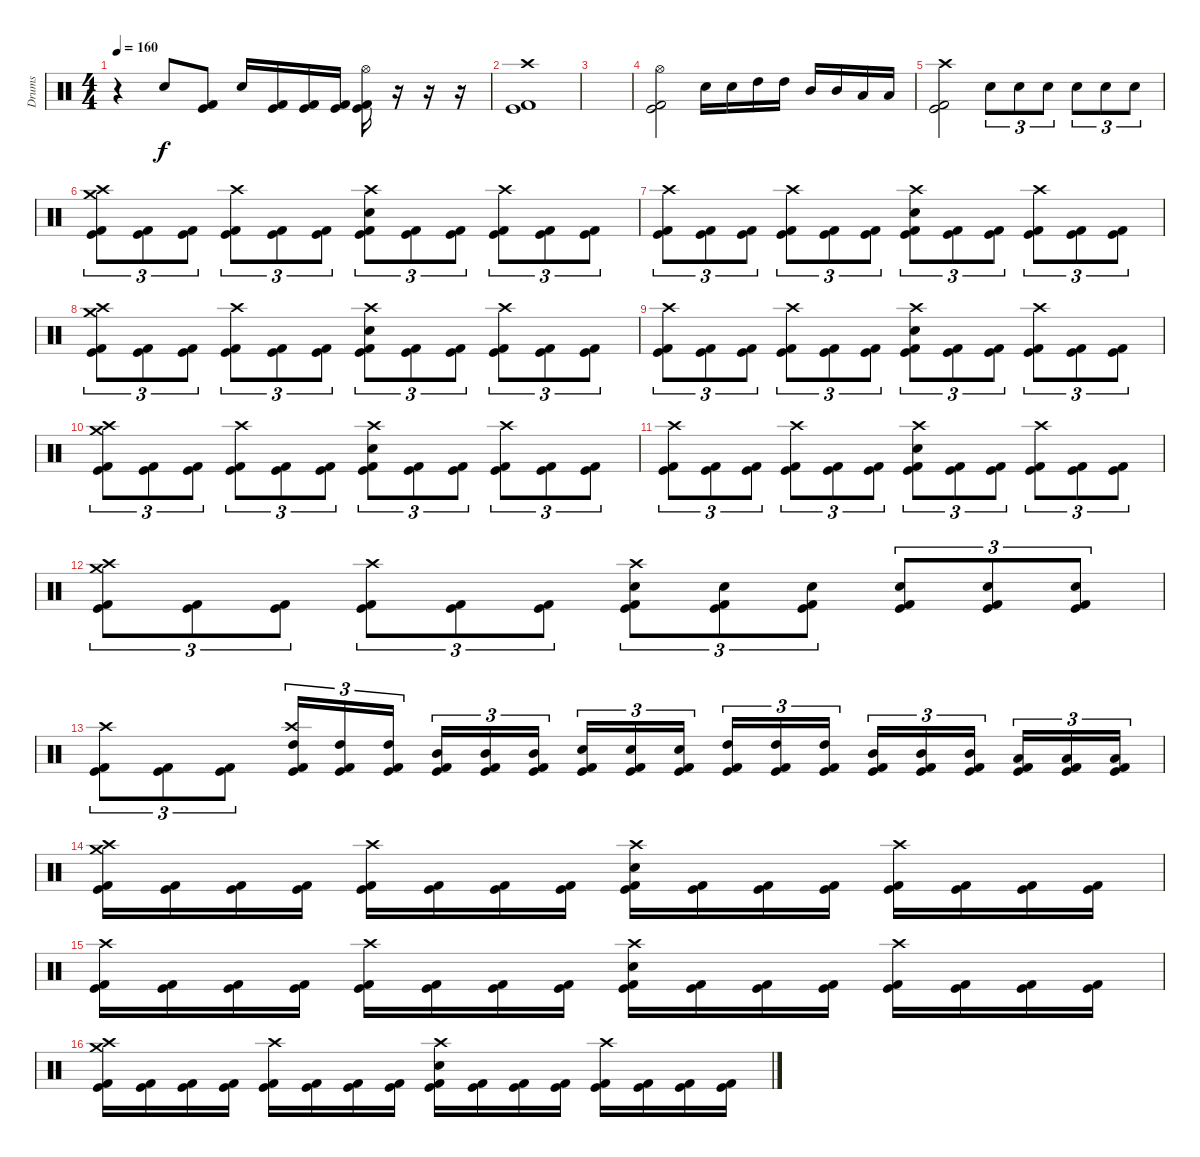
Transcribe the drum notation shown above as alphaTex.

\track ("Drums" "Drums") {instrument percussion}
\staff {score}
\articulation defaults
\ts (4 4)
\tempo 160
\clef neutral
\ks c
r.4{dy f} "Snare (hit) 2".8 ("Kick (hit)" "Kick (hit) 2").8 "Snare (hit) 2".16 ("Kick (hit)" "Kick (hit) 2").16 ("Kick (hit)" "Kick (hit) 2").16 ("Kick (hit)" "Kick (hit) 2").16 ("Hi-Hat (open)" "Kick (hit)" "Kick (hit) 2").16 r.16 r.16 r.16 |
("Crash high (hit)" "Kick (hit)" "Kick (hit) 2").1 |
|
("Hi-Hat (open)" "Kick (hit)" "Kick (hit) 2").2 "Snare (hit) 2".16 "Snare (hit) 2".16 "High Tom (hit)".16 "High Tom (hit)".16 "Mid Tom (hit)".16 "Mid Tom (hit)".16 "Low Tom (hit)".16 "Low Tom (hit)".16 |
("Crash high (hit)" "Kick (hit)" "Kick (hit) 2").2 "Snare (hit) 2".8{tu (3 2)} "Snare (hit) 2".8{tu (3 2)} "Snare (hit) 2".8{tu (3 2)} "Snare (hit) 2".8{tu (3 2)} "Snare (hit) 2".8{tu (3 2)} "Snare (hit) 2".8{tu (3 2)} |
("Crash medium (hit)" "Crash high (hit)" "Kick (hit)" "Kick (hit) 2").8{tu (3 2)} ("Kick (hit)" "Kick (hit) 2").8{tu (3 2)} ("Kick (hit)" "Kick (hit) 2").8{tu (3 2)} ("Crash high (hit)" "Kick (hit)" "Kick (hit) 2").8{tu (3 2)} ("Kick (hit)" "Kick (hit) 2").8{tu (3 2)} ("Kick (hit)" "Kick (hit) 2").8{tu (3 2)} ("Crash high (hit)" "Snare (hit) 2" "Kick (hit)" "Kick (hit) 2").8{tu (3 2)} ("Kick (hit)" "Kick (hit) 2").8{tu (3 2)} ("Kick (hit)" "Kick (hit) 2").8{tu (3 2)} ("Crash high (hit)" "Kick (hit)" "Kick (hit) 2").8{tu (3 2)} ("Kick (hit)" "Kick (hit) 2").8{tu (3 2)} ("Kick (hit)" "Kick (hit) 2").8{tu (3 2)} |
("Crash high (hit)" "Kick (hit)" "Kick (hit) 2").8{tu (3 2)} ("Kick (hit)" "Kick (hit) 2").8{tu (3 2)} ("Kick (hit)" "Kick (hit) 2").8{tu (3 2)} ("Crash high (hit)" "Kick (hit)" "Kick (hit) 2").8{tu (3 2)} ("Kick (hit)" "Kick (hit) 2").8{tu (3 2)} ("Kick (hit)" "Kick (hit) 2").8{tu (3 2)} ("Crash high (hit)" "Snare (hit) 2" "Kick (hit)" "Kick (hit) 2").8{tu (3 2)} ("Kick (hit)" "Kick (hit) 2").8{tu (3 2)} ("Kick (hit)" "Kick (hit) 2").8{tu (3 2)} ("Crash high (hit)" "Kick (hit)" "Kick (hit) 2").8{tu (3 2)} ("Kick (hit)" "Kick (hit) 2").8{tu (3 2)} ("Kick (hit)" "Kick (hit) 2").8{tu (3 2)} |
("Crash medium (hit)" "Crash high (hit)" "Kick (hit)" "Kick (hit) 2").8{tu (3 2)} ("Kick (hit)" "Kick (hit) 2").8{tu (3 2)} ("Kick (hit)" "Kick (hit) 2").8{tu (3 2)} ("Crash high (hit)" "Kick (hit)" "Kick (hit) 2").8{tu (3 2)} ("Kick (hit)" "Kick (hit) 2").8{tu (3 2)} ("Kick (hit)" "Kick (hit) 2").8{tu (3 2)} ("Crash high (hit)" "Snare (hit) 2" "Kick (hit)" "Kick (hit) 2").8{tu (3 2)} ("Kick (hit)" "Kick (hit) 2").8{tu (3 2)} ("Kick (hit)" "Kick (hit) 2").8{tu (3 2)} ("Crash high (hit)" "Kick (hit)" "Kick (hit) 2").8{tu (3 2)} ("Kick (hit)" "Kick (hit) 2").8{tu (3 2)} ("Kick (hit)" "Kick (hit) 2").8{tu (3 2)} |
("Crash high (hit)" "Kick (hit)" "Kick (hit) 2").8{tu (3 2)} ("Kick (hit)" "Kick (hit) 2").8{tu (3 2)} ("Kick (hit)" "Kick (hit) 2").8{tu (3 2)} ("Crash high (hit)" "Kick (hit)" "Kick (hit) 2").8{tu (3 2)} ("Kick (hit)" "Kick (hit) 2").8{tu (3 2)} ("Kick (hit)" "Kick (hit) 2").8{tu (3 2)} ("Crash high (hit)" "Snare (hit) 2" "Kick (hit)" "Kick (hit) 2").8{tu (3 2)} ("Kick (hit)" "Kick (hit) 2").8{tu (3 2)} ("Kick (hit)" "Kick (hit) 2").8{tu (3 2)} ("Crash high (hit)" "Kick (hit)" "Kick (hit) 2").8{tu (3 2)} ("Kick (hit)" "Kick (hit) 2").8{tu (3 2)} ("Kick (hit)" "Kick (hit) 2").8{tu (3 2)} |
("Crash medium (hit)" "Crash high (hit)" "Kick (hit)" "Kick (hit) 2").8{tu (3 2)} ("Kick (hit)" "Kick (hit) 2").8{tu (3 2)} ("Kick (hit)" "Kick (hit) 2").8{tu (3 2)} ("Crash high (hit)" "Kick (hit)" "Kick (hit) 2").8{tu (3 2)} ("Kick (hit)" "Kick (hit) 2").8{tu (3 2)} ("Kick (hit)" "Kick (hit) 2").8{tu (3 2)} ("Crash high (hit)" "Snare (hit) 2" "Kick (hit)" "Kick (hit) 2").8{tu (3 2)} ("Kick (hit)" "Kick (hit) 2").8{tu (3 2)} ("Kick (hit)" "Kick (hit) 2").8{tu (3 2)} ("Crash high (hit)" "Kick (hit)" "Kick (hit) 2").8{tu (3 2)} ("Kick (hit)" "Kick (hit) 2").8{tu (3 2)} ("Kick (hit)" "Kick (hit) 2").8{tu (3 2)} |
("Crash high (hit)" "Kick (hit)" "Kick (hit) 2").8{tu (3 2)} ("Kick (hit)" "Kick (hit) 2").8{tu (3 2)} ("Kick (hit)" "Kick (hit) 2").8{tu (3 2)} ("Crash high (hit)" "Kick (hit)" "Kick (hit) 2").8{tu (3 2)} ("Kick (hit)" "Kick (hit) 2").8{tu (3 2)} ("Kick (hit)" "Kick (hit) 2").8{tu (3 2)} ("Crash high (hit)" "Snare (hit) 2" "Kick (hit)" "Kick (hit) 2").8{tu (3 2)} ("Kick (hit)" "Kick (hit) 2").8{tu (3 2)} ("Kick (hit)" "Kick (hit) 2").8{tu (3 2)} ("Crash high (hit)" "Kick (hit)" "Kick (hit) 2").8{tu (3 2)} ("Kick (hit)" "Kick (hit) 2").8{tu (3 2)} ("Kick (hit)" "Kick (hit) 2").8{tu (3 2)} |
("Crash medium (hit)" "Crash high (hit)" "Kick (hit)" "Kick (hit) 2").8{tu (3 2)} ("Kick (hit)" "Kick (hit) 2").8{tu (3 2)} ("Kick (hit)" "Kick (hit) 2").8{tu (3 2)} ("Crash high (hit)" "Kick (hit)" "Kick (hit) 2").8{tu (3 2)} ("Kick (hit)" "Kick (hit) 2").8{tu (3 2)} ("Kick (hit)" "Kick (hit) 2").8{tu (3 2)} ("Crash high (hit)" "Snare (hit) 2" "Kick (hit)" "Kick (hit) 2").8{tu (3 2)} ("Snare (hit) 2" "Kick (hit)" "Kick (hit) 2").8{tu (3 2)} ("Snare (hit) 2" "Kick (hit)" "Kick (hit) 2").8{tu (3 2)} ("Snare (hit) 2" "Kick (hit)" "Kick (hit) 2").8{tu (3 2)} ("Snare (hit) 2" "Kick (hit)" "Kick (hit) 2").8{tu (3 2)} ("Snare (hit) 2" "Kick (hit)" "Kick (hit) 2").8{tu (3 2)} |
("Crash high (hit)" "Kick (hit)" "Kick (hit) 2").8{tu (3 2)} ("Kick (hit)" "Kick (hit) 2").8{tu (3 2)} ("Kick (hit)" "Kick (hit) 2").8{tu (3 2)} ("Crash high (hit)" "High Tom (hit)" "Kick (hit)" "Kick (hit) 2").16{tu (3 2)} ("High Tom (hit)" "Kick (hit)" "Kick (hit) 2").16{tu (3 2)} ("High Tom (hit)" "Kick (hit)" "Kick (hit) 2").16{tu (3 2) beam splitsecondary} ("Mid Tom (hit)" "Kick (hit)" "Kick (hit) 2").16{tu (3 2)} ("Mid Tom (hit)" "Kick (hit)" "Kick (hit) 2").16{tu (3 2)} ("Mid Tom (hit)" "Kick (hit)" "Kick (hit) 2").16{tu (3 2)} ("Snare (hit) 2" "Kick (hit)" "Kick (hit) 2").16{tu (3 2)} ("Snare (hit) 2" "Kick (hit)" "Kick (hit) 2").16{tu (3 2)} ("Snare (hit) 2" "Kick (hit)" "Kick (hit) 2").16{tu (3 2) beam splitsecondary} ("High Tom (hit)" "Kick (hit)" "Kick (hit) 2").16{tu (3 2)} ("High Tom (hit)" "Kick (hit)" "Kick (hit) 2").16{tu (3 2)} ("High Tom (hit)" "Kick (hit)" "Kick (hit) 2").16{tu (3 2)} ("Mid Tom (hit)" "Kick (hit)" "Kick (hit) 2").16{tu (3 2)} ("Mid Tom (hit)" "Kick (hit)" "Kick (hit) 2").16{tu (3 2)} ("Mid Tom (hit)" "Kick (hit)" "Kick (hit) 2").16{tu (3 2) beam splitsecondary} ("Low Tom (hit)" "Kick (hit)" "Kick (hit) 2").16{tu (3 2)} ("Low Tom (hit)" "Kick (hit)" "Kick (hit) 2").16{tu (3 2)} ("Low Tom (hit)" "Kick (hit)" "Kick (hit) 2").16{tu (3 2)} |
("Crash medium (hit)" "Crash high (hit)" "Kick (hit)" "Kick (hit) 2").16 ("Kick (hit)" "Kick (hit) 2").16 ("Kick (hit)" "Kick (hit) 2").16 ("Kick (hit)" "Kick (hit) 2").16 ("Crash high (hit)" "Kick (hit)" "Kick (hit) 2").16 ("Kick (hit)" "Kick (hit) 2").16 ("Kick (hit)" "Kick (hit) 2").16 ("Kick (hit)" "Kick (hit) 2").16 ("Crash high (hit)" "Snare (hit) 2" "Kick (hit)" "Kick (hit) 2").16 ("Kick (hit)" "Kick (hit) 2").16 ("Kick (hit)" "Kick (hit) 2").16 ("Kick (hit)" "Kick (hit) 2").16 ("Crash high (hit)" "Kick (hit)" "Kick (hit) 2").16 ("Kick (hit)" "Kick (hit) 2").16 ("Kick (hit)" "Kick (hit) 2").16 ("Kick (hit)" "Kick (hit) 2").16 |
("Crash high (hit)" "Kick (hit)" "Kick (hit) 2").16 ("Kick (hit)" "Kick (hit) 2").16 ("Kick (hit)" "Kick (hit) 2").16 ("Kick (hit)" "Kick (hit) 2").16 ("Crash high (hit)" "Kick (hit)" "Kick (hit) 2").16 ("Kick (hit)" "Kick (hit) 2").16 ("Kick (hit)" "Kick (hit) 2").16 ("Kick (hit)" "Kick (hit) 2").16 ("Crash high (hit)" "Snare (hit) 2" "Kick (hit)" "Kick (hit) 2").16 ("Kick (hit)" "Kick (hit) 2").16 ("Kick (hit)" "Kick (hit) 2").16 ("Kick (hit)" "Kick (hit) 2").16 ("Crash high (hit)" "Kick (hit)" "Kick (hit) 2").16 ("Kick (hit)" "Kick (hit) 2").16 ("Kick (hit)" "Kick (hit) 2").16 ("Kick (hit)" "Kick (hit) 2").16 |
("Crash medium (hit)" "Crash high (hit)" "Kick (hit)" "Kick (hit) 2").16 ("Kick (hit)" "Kick (hit) 2").16 ("Kick (hit)" "Kick (hit) 2").16 ("Kick (hit)" "Kick (hit) 2").16 ("Crash high (hit)" "Kick (hit)" "Kick (hit) 2").16 ("Kick (hit)" "Kick (hit) 2").16 ("Kick (hit)" "Kick (hit) 2").16 ("Kick (hit)" "Kick (hit) 2").16 ("Crash high (hit)" "Snare (hit) 2" "Kick (hit)" "Kick (hit) 2").16 ("Kick (hit)" "Kick (hit) 2").16 ("Kick (hit)" "Kick (hit) 2").16 ("Kick (hit)" "Kick (hit) 2").16 ("Crash high (hit)" "Kick (hit)" "Kick (hit) 2").16 ("Kick (hit)" "Kick (hit) 2").16 ("Kick (hit)" "Kick (hit) 2").16 ("Kick (hit)" "Kick (hit) 2").16
